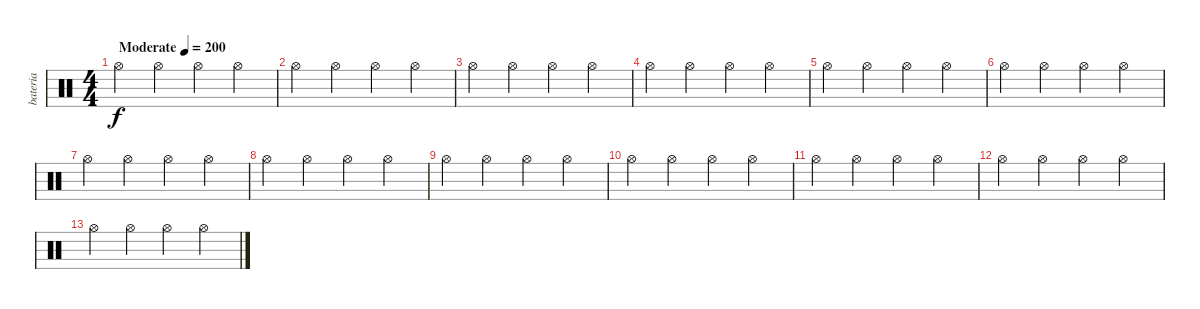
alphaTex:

\track ("bateria" "bateria") {instrument percussion}
\staff {score}
\articulation defaults
\ts (4 4)
\tempo (200 "Moderate")
\clef neutral
\ks c "Hi-Hat (open)".4{dy f} "Hi-Hat (open)".4 "Hi-Hat (open)".4 "Hi-Hat (open)".4
|
"Hi-Hat (open)".4 "Hi-Hat (open)".4 "Hi-Hat (open)".4 "Hi-Hat (open)".4 |
"Hi-Hat (open)".4 "Hi-Hat (open)".4 "Hi-Hat (open)".4 "Hi-Hat (open)".4 |
"Hi-Hat (open)".4 "Hi-Hat (open)".4 "Hi-Hat (open)".4 "Hi-Hat (open)".4 |
"Hi-Hat (open)".4 "Hi-Hat (open)".4 "Hi-Hat (open)".4 "Hi-Hat (open)".4 |
"Hi-Hat (open)".4 "Hi-Hat (open)".4 "Hi-Hat (open)".4 "Hi-Hat (open)".4 |
"Hi-Hat (open)".4 "Hi-Hat (open)".4 "Hi-Hat (open)".4 "Hi-Hat (open)".4 |
"Hi-Hat (open)".4 "Hi-Hat (open)".4 "Hi-Hat (open)".4 "Hi-Hat (open)".4 |
"Hi-Hat (open)".4 "Hi-Hat (open)".4 "Hi-Hat (open)".4 "Hi-Hat (open)".4 |
"Hi-Hat (open)".4 "Hi-Hat (open)".4 "Hi-Hat (open)".4 "Hi-Hat (open)".4 |
"Hi-Hat (open)".4 "Hi-Hat (open)".4 "Hi-Hat (open)".4 "Hi-Hat (open)".4 |
"Hi-Hat (open)".4 "Hi-Hat (open)".4 "Hi-Hat (open)".4 "Hi-Hat (open)".4 |
"Hi-Hat (open)".4 "Hi-Hat (open)".4 "Hi-Hat (open)".4 "Hi-Hat (open)".4
